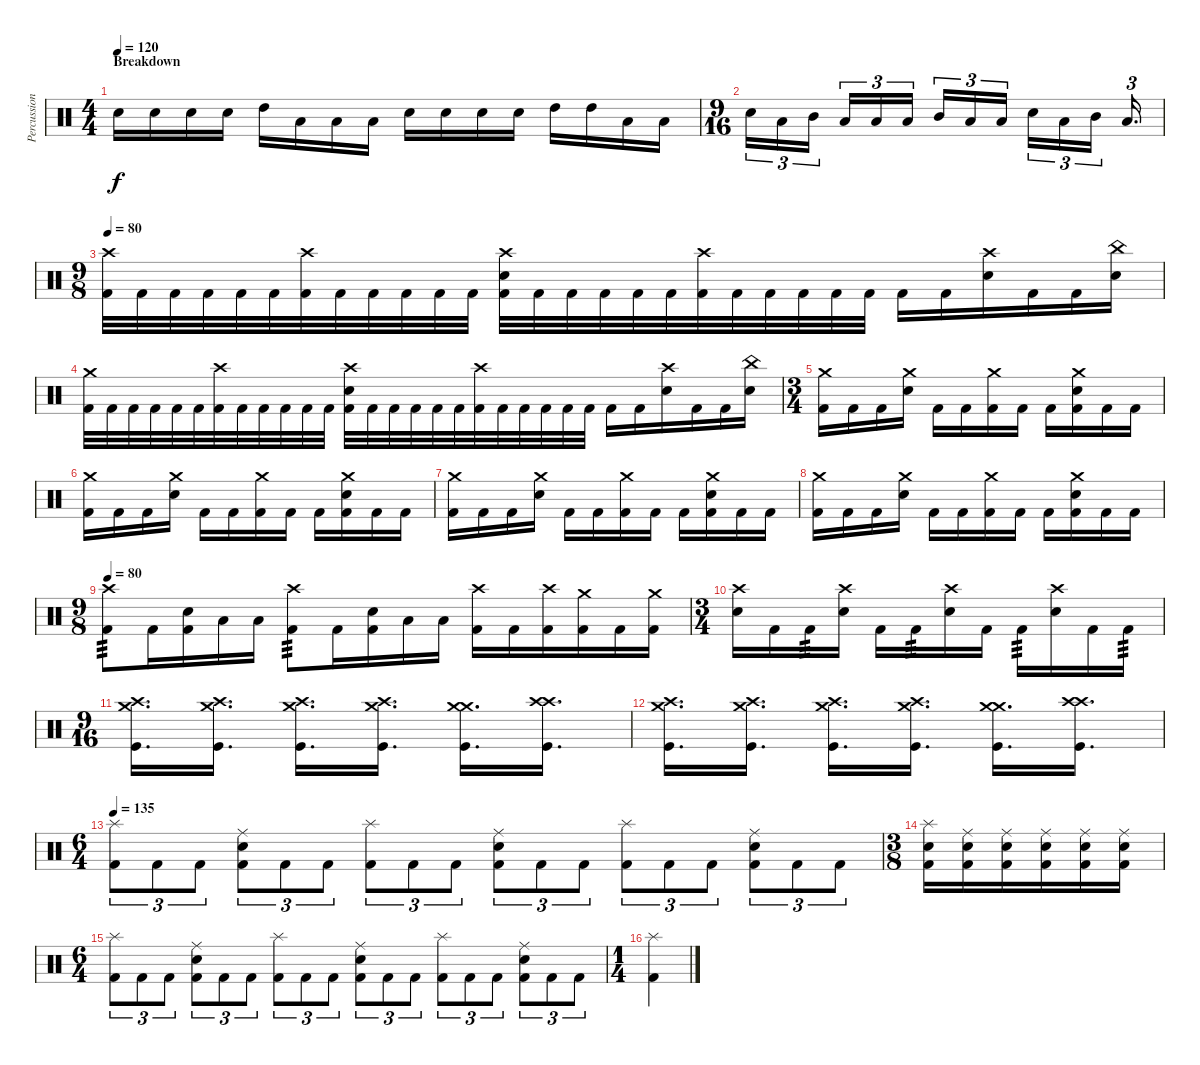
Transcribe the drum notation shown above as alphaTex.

\track ("Percussion" "Percussion") {instrument percussion}
\staff {score}
\articulation defaults
\ts (4 4)
\section ("" "Breakdown")
\tempo 120
\clef neutral
\ks c "Electric Snare (hit)".16{dy f} "Electric Snare (hit)".16 "Electric Snare (hit)".16 "Electric Snare (hit)".16 "High Tom (hit)".16 "Low Tom (hit)".16 "Low Floor Tom (hit)".16 "Low Floor Tom (hit)".16 "Electric Snare (hit)".16 "Electric Snare (hit)".16 "Electric Snare (hit)".16 "Electric Snare (hit)".16 "High Tom (hit)".16 "High Tom (hit)".16 "Low Tom (hit)".16 "Low Floor Tom (hit)".16
|
\ts (9 16)
"Electric Snare (hit)".16{tu (3 2)} "Low Floor Tom (hit)".16{tu (3 2)} "Mid Tom (hit)".16{tu (3 2) beam splitsecondary} "Low Floor Tom (hit)".16{tu (3 2)} "Low Tom (hit)".16{tu (3 2)} "Low Floor Tom (hit)".16{tu (3 2) beam splitsecondary} "Mid Tom (hit)".16{tu (3 2)} "Low Tom (hit)".16{tu (3 2)} "Low Floor Tom (hit)".16{tu (3 2)} "Electric Snare (hit)".16{tu (3 2)} "Low Floor Tom (hit)".16{tu (3 2)} "Mid Tom (hit)".16{tu (3 2) beam splitsecondary} "Low Floor Tom (hit)".16{d tu (3 2)} |
\ts (9 8)
\tempo 80
("Crash high (hit)" "Kick (hit) 2").32 "Kick (hit) 2".32 "Kick (hit) 2".32 "Kick (hit) 2".32 "Kick (hit) 2".32 "Kick (hit) 2".32 ("Crash high (hit)" "Kick (hit) 2").32 "Kick (hit) 2".32 "Kick (hit) 2".32 "Kick (hit) 2".32 "Kick (hit) 2".32 "Kick (hit) 2".32 ("Crash high (hit)" "Electric Snare (hit)" "Kick (hit) 2").32 "Kick (hit) 2".32 "Kick (hit) 2".32 "Kick (hit) 2".32 "Kick (hit) 2".32 "Kick (hit) 2".32 ("Crash high (hit)" "Kick (hit) 2").32 "Kick (hit) 2".32 "Kick (hit) 2".32 "Kick (hit) 2".32 "Kick (hit) 2".32 "Kick (hit) 2".32 "Kick (hit) 2".16 "Kick (hit) 2".16 ("Crash high (hit)" "Electric Snare (hit)").16 "Kick (hit) 2".16 "Kick (hit) 2".16 ("China (hit)" "Electric Snare (hit)").16 |
("Crash medium (hit)" "Kick (hit) 2").32 "Kick (hit) 2".32 "Kick (hit) 2".32 "Kick (hit) 2".32 "Kick (hit) 2".32 "Kick (hit) 2".32 ("Crash high (hit)" "Kick (hit) 2").32 "Kick (hit) 2".32 "Kick (hit) 2".32 "Kick (hit) 2".32 "Kick (hit) 2".32 "Kick (hit) 2".32 ("Crash high (hit)" "Electric Snare (hit)" "Kick (hit) 2").32 "Kick (hit) 2".32 "Kick (hit) 2".32 "Kick (hit) 2".32 "Kick (hit) 2".32 "Kick (hit) 2".32 ("Crash high (hit)" "Kick (hit) 2").32 "Kick (hit) 2".32 "Kick (hit) 2".32 "Kick (hit) 2".32 "Kick (hit) 2".32 "Kick (hit) 2".32 "Kick (hit) 2".16 "Kick (hit) 2".16 ("Crash high (hit)" "Electric Snare (hit)").16 "Kick (hit) 2".16 "Kick (hit) 2".16 ("China (hit)" "Electric Snare (hit)").16 |
\ts (3 4)
("Crash medium (hit)" "Kick (hit) 2").16 "Kick (hit) 2".16 "Kick (hit) 2".16 ("Crash medium (hit)" "Electric Snare (hit)").16 "Kick (hit) 2".16 "Kick (hit) 2".16 ("Crash medium (hit)" "Kick (hit) 2").16 "Kick (hit) 2".16 "Kick (hit) 2".16 ("Crash medium (hit)" "Electric Snare (hit)" "Kick (hit) 2").16 "Kick (hit) 2".16 "Kick (hit) 2".16 |
("Crash medium (hit)" "Kick (hit) 2").16 "Kick (hit) 2".16 "Kick (hit) 2".16 ("Crash medium (hit)" "Electric Snare (hit)").16 "Kick (hit) 2".16 "Kick (hit) 2".16 ("Crash medium (hit)" "Kick (hit) 2").16 "Kick (hit) 2".16 "Kick (hit) 2".16 ("Crash medium (hit)" "Electric Snare (hit)" "Kick (hit) 2").16 "Kick (hit) 2".16 "Kick (hit) 2".16 |
("Crash medium (hit)" "Kick (hit) 2").16 "Kick (hit) 2".16 "Kick (hit) 2".16 ("Crash medium (hit)" "Electric Snare (hit)").16 "Kick (hit) 2".16 "Kick (hit) 2".16 ("Crash medium (hit)" "Kick (hit) 2").16 "Kick (hit) 2".16 "Kick (hit) 2".16 ("Crash medium (hit)" "Electric Snare (hit)" "Kick (hit) 2").16 "Kick (hit) 2".16 "Kick (hit) 2".16 |
("Crash medium (hit)" "Kick (hit) 2").16 "Kick (hit) 2".16 "Kick (hit) 2".16 ("Crash medium (hit)" "Electric Snare (hit)").16 "Kick (hit) 2".16 "Kick (hit) 2".16 ("Crash medium (hit)" "Kick (hit) 2").16 "Kick (hit) 2".16 "Kick (hit) 2".16 ("Crash medium (hit)" "Electric Snare (hit)" "Kick (hit) 2").16 "Kick (hit) 2".16 "Kick (hit) 2".16 |
\ts (9 8)
\tempo 80
("Crash high (hit)" "Kick (hit) 2").8{tp 3} "Kick (hit) 2".16 ("Electric Snare (hit)" "Kick (hit) 2").16 "Low Tom (hit)".16 "Low Floor Tom (hit)".16 ("Crash high (hit)" "Kick (hit) 2").8{tp 3} "Kick (hit) 2".16 ("Electric Snare (hit)" "Kick (hit) 2").16 "Low Tom (hit)".16 "Low Floor Tom (hit)".16 ("Crash high (hit)" "Kick (hit) 2").16 "Kick (hit) 2".16 ("Crash high (hit)" "Kick (hit) 2").16 ("Crash medium (hit)" "Kick (hit) 2").16 "Kick (hit) 2".16 ("Crash medium (hit)" "Kick (hit) 2").16 |
\ts (3 4)
("Crash high (hit)" "Electric Snare (hit)").16 "Kick (hit) 2".16 "Kick (hit) 2".16{tp 3} ("Crash high (hit)" "Electric Snare (hit)").16 "Kick (hit) 2".16 "Kick (hit) 2".16{tp 3} ("Crash high (hit)" "Electric Snare (hit)").16 "Kick (hit) 2".16 "Kick (hit) 2".16{tp 3} ("Crash high (hit)" "Electric Snare (hit)").16 "Kick (hit) 2".16 "Kick (hit) 2".16{tp 3} |
\ts (9 16)
("Crash high (hit)" "Crash medium (hit)" "Kick (hit)").16{d} ("Crash medium (hit)" "Crash high (hit)" "Kick (hit)").16{d} ("Crash high (hit)" "Crash medium (hit)" "Kick (hit)").16{d} ("Crash medium (hit)" "Crash high (hit)" "Kick (hit)").16{d} ("Crash medium (hit)" "Crash medium (hit)" "Kick (hit)").16{d} ("Crash high (hit)" "Crash high (hit)" "Kick (hit)").16{d} |
("Crash high (hit)" "Crash medium (hit)" "Kick (hit)").16{d} ("Crash medium (hit)" "Crash high (hit)" "Kick (hit)").16{d} ("Crash high (hit)" "Crash medium (hit)" "Kick (hit)").16{d} ("Crash medium (hit)" "Crash high (hit)" "Kick (hit)").16{d} ("Crash medium (hit)" "Crash medium (hit)" "Kick (hit)").16{d} ("Crash high (hit)" "Crash high (hit)" "Kick (hit)").16{d} |
\ts (6 4)
\tempo 135
("Splash (hit)" "Kick (hit) 2").8{tu (3 2)} "Kick (hit) 2".8{tu (3 2)} "Kick (hit) 2".8{tu (3 2)} ("Ride (middle)" "Electric Snare (hit)" "Kick (hit) 2").8{tu (3 2)} "Kick (hit) 2".8{tu (3 2)} "Kick (hit) 2".8{tu (3 2)} ("Splash (hit)" "Kick (hit) 2").8{tu (3 2)} "Kick (hit) 2".8{tu (3 2)} "Kick (hit) 2".8{tu (3 2)} ("Ride (middle)" "Electric Snare (hit)" "Kick (hit) 2").8{tu (3 2)} "Kick (hit) 2".8{tu (3 2)} "Kick (hit) 2".8{tu (3 2)} ("Splash (hit)" "Kick (hit) 2").8{tu (3 2)} "Kick (hit) 2".8{tu (3 2)} "Kick (hit) 2".8{tu (3 2)} ("Ride (middle)" "Electric Snare (hit)" "Kick (hit) 2").8{tu (3 2)} "Kick (hit) 2".8{tu (3 2)} "Kick (hit) 2".8{tu (3 2)} |
\ts (3 8)
("Splash (hit)" "Electric Snare (hit)" "Kick (hit) 2").16 ("Ride (middle)" "Electric Snare (hit)" "Kick (hit) 2").16 ("Ride (middle)" "Electric Snare (hit)" "Kick (hit) 2").16 ("Ride (middle)" "Electric Snare (hit)" "Kick (hit) 2").16 ("Ride (middle)" "Electric Snare (hit)" "Kick (hit) 2").16 ("Ride (middle)" "Electric Snare (hit)" "Kick (hit) 2").16 |
\ts (6 4)
("Splash (hit)" "Kick (hit) 2").8{tu (3 2)} "Kick (hit) 2".8{tu (3 2)} "Kick (hit) 2".8{tu (3 2)} ("Ride (middle)" "Electric Snare (hit)" "Kick (hit) 2").8{tu (3 2)} "Kick (hit) 2".8{tu (3 2)} "Kick (hit) 2".8{tu (3 2)} ("Splash (hit)" "Kick (hit) 2").8{tu (3 2)} "Kick (hit) 2".8{tu (3 2)} "Kick (hit) 2".8{tu (3 2)} ("Ride (middle)" "Electric Snare (hit)" "Kick (hit) 2").8{tu (3 2)} "Kick (hit) 2".8{tu (3 2)} "Kick (hit) 2".8{tu (3 2)} ("Splash (hit)" "Kick (hit) 2").8{tu (3 2)} "Kick (hit) 2".8{tu (3 2)} "Kick (hit) 2".8{tu (3 2)} ("Ride (middle)" "Electric Snare (hit)" "Kick (hit) 2").8{tu (3 2)} "Kick (hit) 2".8{tu (3 2)} "Kick (hit) 2".8{tu (3 2)} |
\ts (1 4)
("Splash (hit)" "Kick (hit) 2").4
